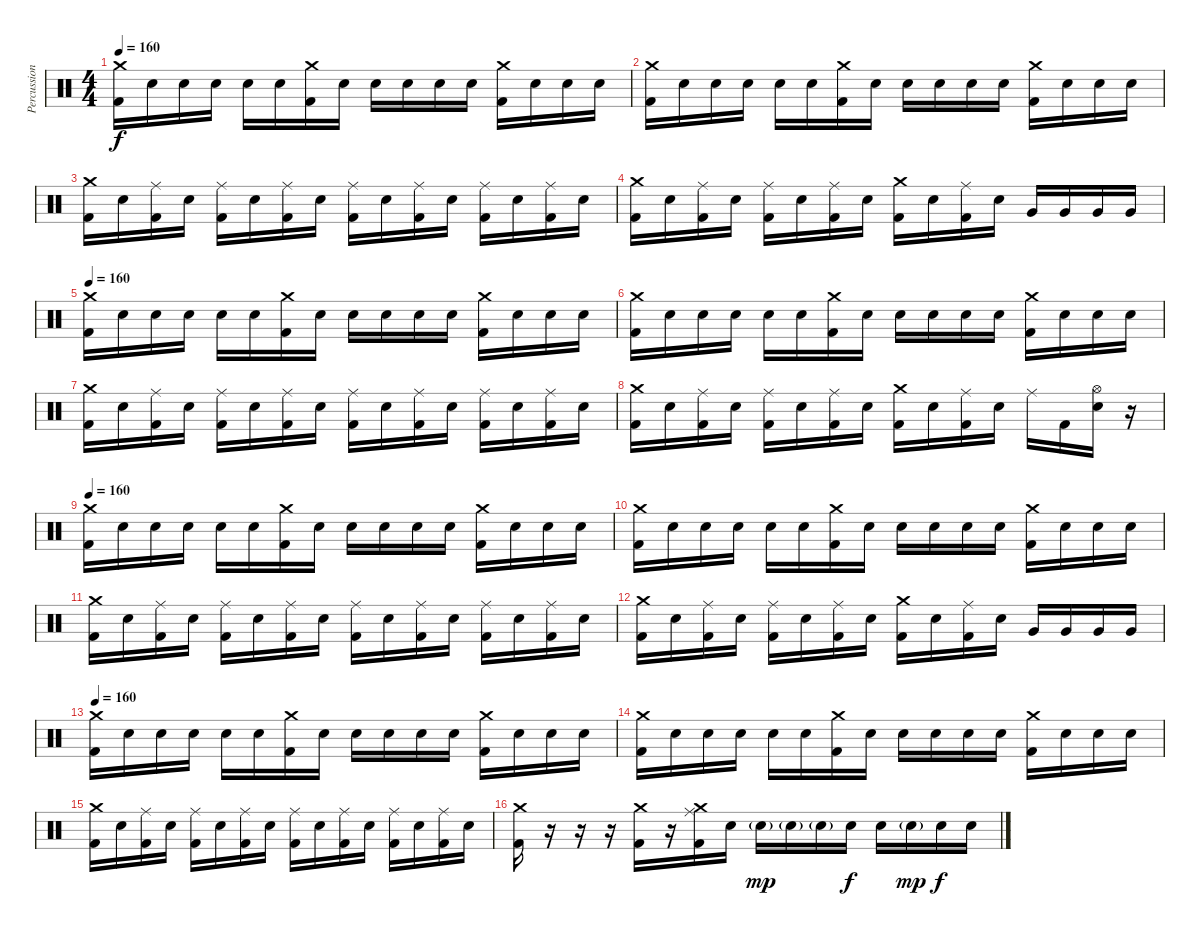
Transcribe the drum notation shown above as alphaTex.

\track ("Percussion" "Percussion") {instrument percussion}
\staff {score}
\articulation defaults
\ts (4 4)
\tempo 160
\clef neutral
\ks c
("Crash medium (hit)" "Kick (hit) 2").16{dy f} "Electric Snare (hit)".16 "Electric Snare (hit)".16 "Electric Snare (hit)".16 "Electric Snare (hit)".16 "Electric Snare (hit)".16 ("Crash medium (hit)" "Kick (hit) 2").16 "Electric Snare (hit)".16 "Electric Snare (hit)".16 "Electric Snare (hit)".16 "Electric Snare (hit)".16 "Electric Snare (hit)".16 ("Crash medium (hit)" "Kick (hit) 2").16 "Electric Snare (hit)".16 "Electric Snare (hit)".16 "Electric Snare (hit)".16 |
("Crash medium (hit)" "Kick (hit) 2").16 "Electric Snare (hit)".16 "Electric Snare (hit)".16 "Electric Snare (hit)".16 "Electric Snare (hit)".16 "Electric Snare (hit)".16 ("Crash medium (hit)" "Kick (hit) 2").16 "Electric Snare (hit)".16 "Electric Snare (hit)".16 "Electric Snare (hit)".16 "Electric Snare (hit)".16 "Electric Snare (hit)".16 ("Crash medium (hit)" "Kick (hit) 2").16 "Electric Snare (hit)".16 "Electric Snare (hit)".16 "Electric Snare (hit)".16 |
("Crash medium (hit)" "Kick (hit) 2").16 "Electric Snare (hit)".16 ("Ride (middle)" "Kick (hit) 2").16 "Electric Snare (hit)".16 ("Ride (middle)" "Kick (hit) 2").16 "Electric Snare (hit)".16 ("Ride (middle)" "Kick (hit) 2").16 "Electric Snare (hit)".16 ("Ride (middle)" "Kick (hit) 2").16 "Electric Snare (hit)".16 ("Ride (middle)" "Kick (hit) 2").16 "Electric Snare (hit)".16 ("Ride (middle)" "Kick (hit) 2").16 "Electric Snare (hit)".16 ("Ride (middle)" "Kick (hit) 2").16 "Electric Snare (hit)".16 |
("Crash medium (hit)" "Kick (hit) 2").16 "Electric Snare (hit)".16 ("Ride (middle)" "Kick (hit) 2").16 "Electric Snare (hit)".16 ("Ride (middle)" "Kick (hit) 2").16 "Electric Snare (hit)".16 ("Ride (middle)" "Kick (hit) 2").16 "Electric Snare (hit)".16 ("Crash medium (hit)" "Kick (hit) 2").16 "Electric Snare (hit)".16 ("Ride (middle)" "Kick (hit) 2").16 "Electric Snare (hit)".16 "Very Low Tom (hit)".16 "Very Low Tom (hit)".16 "Very Low Tom (hit)".16 "Very Low Tom (hit)".16 |
\tempo 160
("Crash medium (hit)" "Kick (hit) 2").16 "Electric Snare (hit)".16 "Electric Snare (hit)".16 "Electric Snare (hit)".16 "Electric Snare (hit)".16 "Electric Snare (hit)".16 ("Crash medium (hit)" "Kick (hit) 2").16 "Electric Snare (hit)".16 "Electric Snare (hit)".16 "Electric Snare (hit)".16 "Electric Snare (hit)".16 "Electric Snare (hit)".16 ("Crash medium (hit)" "Kick (hit) 2").16 "Electric Snare (hit)".16 "Electric Snare (hit)".16 "Electric Snare (hit)".16 |
("Crash medium (hit)" "Kick (hit) 2").16 "Electric Snare (hit)".16 "Electric Snare (hit)".16 "Electric Snare (hit)".16 "Electric Snare (hit)".16 "Electric Snare (hit)".16 ("Crash medium (hit)" "Kick (hit) 2").16 "Electric Snare (hit)".16 "Electric Snare (hit)".16 "Electric Snare (hit)".16 "Electric Snare (hit)".16 "Electric Snare (hit)".16 ("Crash medium (hit)" "Kick (hit) 2").16 "Electric Snare (hit)".16 "Electric Snare (hit)".16 "Electric Snare (hit)".16 |
("Crash medium (hit)" "Kick (hit) 2").16 "Electric Snare (hit)".16 ("Ride (middle)" "Kick (hit) 2").16 "Electric Snare (hit)".16 ("Ride (middle)" "Kick (hit) 2").16 "Electric Snare (hit)".16 ("Ride (middle)" "Kick (hit) 2").16 "Electric Snare (hit)".16 ("Ride (middle)" "Kick (hit) 2").16 "Electric Snare (hit)".16 ("Ride (middle)" "Kick (hit) 2").16 "Electric Snare (hit)".16 ("Ride (middle)" "Kick (hit) 2").16 "Electric Snare (hit)".16 ("Ride (middle)" "Kick (hit) 2").16 "Electric Snare (hit)".16 |
("Crash medium (hit)" "Kick (hit) 2").16 "Electric Snare (hit)".16 ("Ride (middle)" "Kick (hit) 2").16 "Electric Snare (hit)".16 ("Ride (middle)" "Kick (hit) 2").16 "Electric Snare (hit)".16 ("Ride (middle)" "Kick (hit) 2").16 "Electric Snare (hit)".16 ("Crash medium (hit)" "Kick (hit) 2").16 "Electric Snare (hit)".16 ("Ride (middle)" "Kick (hit) 2").16 "Electric Snare (hit)".16 "Ride (middle)".16 "Kick (hit) 2".16 ("Hi-Hat (open)" "Electric Snare (hit)").16 r.16 |
\tempo 160
("Crash medium (hit)" "Kick (hit) 2").16 "Electric Snare (hit)".16 "Electric Snare (hit)".16 "Electric Snare (hit)".16 "Electric Snare (hit)".16 "Electric Snare (hit)".16 ("Crash medium (hit)" "Kick (hit) 2").16 "Electric Snare (hit)".16 "Electric Snare (hit)".16 "Electric Snare (hit)".16 "Electric Snare (hit)".16 "Electric Snare (hit)".16 ("Crash medium (hit)" "Kick (hit) 2").16 "Electric Snare (hit)".16 "Electric Snare (hit)".16 "Electric Snare (hit)".16 |
("Crash medium (hit)" "Kick (hit) 2").16 "Electric Snare (hit)".16 "Electric Snare (hit)".16 "Electric Snare (hit)".16 "Electric Snare (hit)".16 "Electric Snare (hit)".16 ("Crash medium (hit)" "Kick (hit) 2").16 "Electric Snare (hit)".16 "Electric Snare (hit)".16 "Electric Snare (hit)".16 "Electric Snare (hit)".16 "Electric Snare (hit)".16 ("Crash medium (hit)" "Kick (hit) 2").16 "Electric Snare (hit)".16 "Electric Snare (hit)".16 "Electric Snare (hit)".16 |
("Crash medium (hit)" "Kick (hit) 2").16 "Electric Snare (hit)".16 ("Ride (middle)" "Kick (hit) 2").16 "Electric Snare (hit)".16 ("Ride (middle)" "Kick (hit) 2").16 "Electric Snare (hit)".16 ("Ride (middle)" "Kick (hit) 2").16 "Electric Snare (hit)".16 ("Ride (middle)" "Kick (hit) 2").16 "Electric Snare (hit)".16 ("Ride (middle)" "Kick (hit) 2").16 "Electric Snare (hit)".16 ("Ride (middle)" "Kick (hit) 2").16 "Electric Snare (hit)".16 ("Ride (middle)" "Kick (hit) 2").16 "Electric Snare (hit)".16 |
("Crash medium (hit)" "Kick (hit) 2").16 "Electric Snare (hit)".16 ("Ride (middle)" "Kick (hit) 2").16 "Electric Snare (hit)".16 ("Ride (middle)" "Kick (hit) 2").16 "Electric Snare (hit)".16 ("Ride (middle)" "Kick (hit) 2").16 "Electric Snare (hit)".16 ("Crash medium (hit)" "Kick (hit) 2").16 "Electric Snare (hit)".16 ("Ride (middle)" "Kick (hit) 2").16 "Electric Snare (hit)".16 "Very Low Tom (hit)".16 "Very Low Tom (hit)".16 "Very Low Tom (hit)".16 "Very Low Tom (hit)".16 |
\tempo 160
("Crash medium (hit)" "Kick (hit) 2").16 "Electric Snare (hit)".16 "Electric Snare (hit)".16 "Electric Snare (hit)".16 "Electric Snare (hit)".16 "Electric Snare (hit)".16 ("Crash medium (hit)" "Kick (hit) 2").16 "Electric Snare (hit)".16 "Electric Snare (hit)".16 "Electric Snare (hit)".16 "Electric Snare (hit)".16 "Electric Snare (hit)".16 ("Crash medium (hit)" "Kick (hit) 2").16 "Electric Snare (hit)".16 "Electric Snare (hit)".16 "Electric Snare (hit)".16 |
("Crash medium (hit)" "Kick (hit) 2").16 "Electric Snare (hit)".16 "Electric Snare (hit)".16 "Electric Snare (hit)".16 "Electric Snare (hit)".16 "Electric Snare (hit)".16 ("Crash medium (hit)" "Kick (hit) 2").16 "Electric Snare (hit)".16 "Electric Snare (hit)".16 "Electric Snare (hit)".16 "Electric Snare (hit)".16 "Electric Snare (hit)".16 ("Crash medium (hit)" "Kick (hit) 2").16 "Electric Snare (hit)".16 "Electric Snare (hit)".16 "Electric Snare (hit)".16 |
("Crash medium (hit)" "Kick (hit) 2").16 "Electric Snare (hit)".16 ("Ride (middle)" "Kick (hit) 2").16 "Electric Snare (hit)".16 ("Ride (middle)" "Kick (hit) 2").16 "Electric Snare (hit)".16 ("Ride (middle)" "Kick (hit) 2").16 "Electric Snare (hit)".16 ("Ride (middle)" "Kick (hit) 2").16 "Electric Snare (hit)".16 ("Ride (middle)" "Kick (hit) 2").16 "Electric Snare (hit)".16 ("Ride (middle)" "Kick (hit) 2").16 "Electric Snare (hit)".16 ("Ride (middle)" "Kick (hit) 2").16 "Electric Snare (hit)".16 |
("Crash medium (hit)" "Kick (hit) 2").16 r.16 r.16 r.16 ("Crash medium (hit)" "Kick (hit) 2").16 r.16 ("Crash medium (hit)" "Ride (middle)" "Kick (hit) 2").16 "Electric Snare (hit)".16 "Electric Snare (hit)"{g}.16{dy mp} "Electric Snare (hit)"{g}.16 "Electric Snare (hit)"{g}.16 "Electric Snare (hit)".16{dy f} "Electric Snare (hit)".16 "Electric Snare (hit)"{g}.16{dy mp} "Electric Snare (hit)".16{dy f} "Electric Snare (hit)".16
